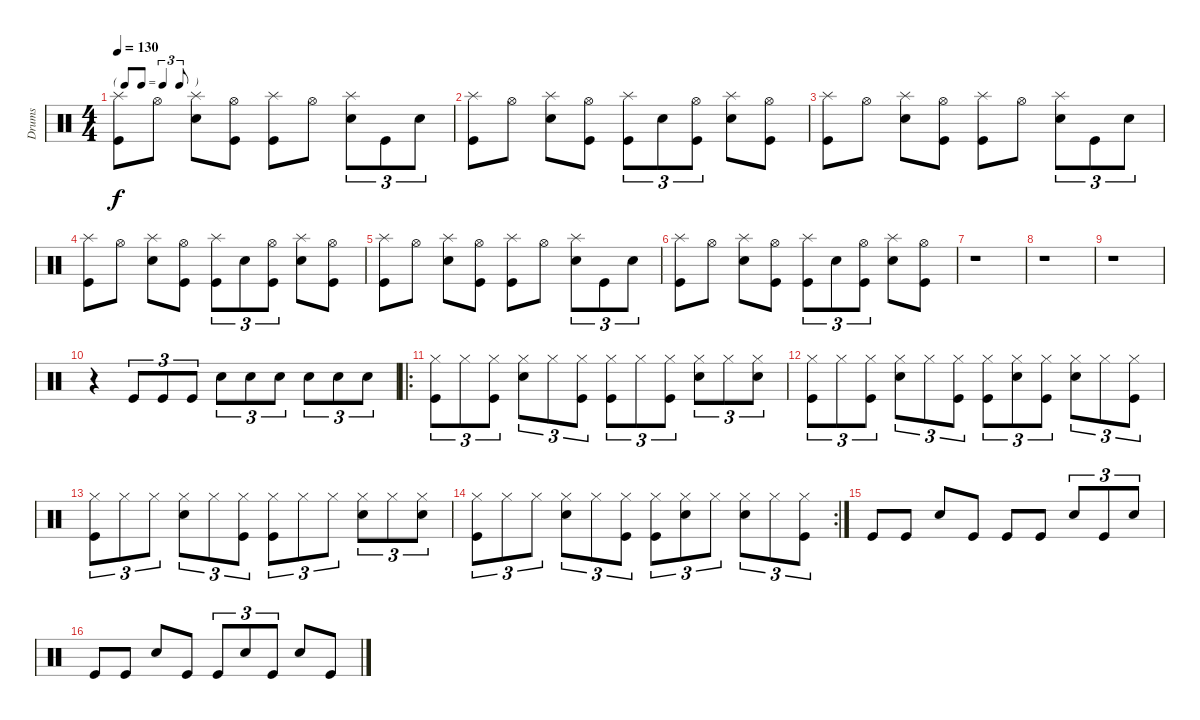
\track ("Drums" "Drums") {instrument percussion}
\staff {score}
\articulation defaults
\ts (4 4)
\tf triplet8th
\tempo 130
\clef neutral
\ks c
("Splash (hit)" "Kick (hit)").8{dy f} "Hi-Hat (open)".8 ("Splash (hit)" "Electric Snare (hit)").8 ("Hi-Hat (open)" "Kick (hit)").8 ("Splash (hit)" "Kick (hit)").8 "Hi-Hat (open)".8 ("Splash (hit)" "Electric Snare (hit)").8{tu (3 2)} "Kick (hit)".8{tu (3 2)} "Electric Snare (hit)".8{tu (3 2)} |
("Splash (hit)" "Kick (hit)").8 "Hi-Hat (open)".8 ("Splash (hit)" "Electric Snare (hit)").8 ("Hi-Hat (open)" "Kick (hit)").8 ("Splash (hit)" "Kick (hit)").8{tu (3 2)} "Electric Snare (hit)".8{tu (3 2)} ("Hi-Hat (open)" "Kick (hit)").8{tu (3 2)} ("Splash (hit)" "Electric Snare (hit)").8 ("Hi-Hat (open)" "Kick (hit)").8 |
("Splash (hit)" "Kick (hit)").8 "Hi-Hat (open)".8 ("Splash (hit)" "Electric Snare (hit)").8 ("Hi-Hat (open)" "Kick (hit)").8 ("Splash (hit)" "Kick (hit)").8 "Hi-Hat (open)".8 ("Splash (hit)" "Electric Snare (hit)").8{tu (3 2)} "Kick (hit)".8{tu (3 2)} "Electric Snare (hit)".8{tu (3 2)} |
("Splash (hit)" "Kick (hit)").8 "Hi-Hat (open)".8 ("Splash (hit)" "Electric Snare (hit)").8 ("Hi-Hat (open)" "Kick (hit)").8 ("Splash (hit)" "Kick (hit)").8{tu (3 2)} "Electric Snare (hit)".8{tu (3 2)} ("Hi-Hat (open)" "Kick (hit)").8{tu (3 2)} ("Splash (hit)" "Electric Snare (hit)").8 ("Hi-Hat (open)" "Kick (hit)").8 |
("Splash (hit)" "Kick (hit)").8 "Hi-Hat (open)".8 ("Splash (hit)" "Electric Snare (hit)").8 ("Hi-Hat (open)" "Kick (hit)").8 ("Splash (hit)" "Kick (hit)").8 "Hi-Hat (open)".8 ("Splash (hit)" "Electric Snare (hit)").8{tu (3 2)} "Kick (hit)".8{tu (3 2)} "Electric Snare (hit)".8{tu (3 2)} |
("Splash (hit)" "Kick (hit)").8 "Hi-Hat (open)".8 ("Splash (hit)" "Electric Snare (hit)").8 ("Hi-Hat (open)" "Kick (hit)").8 ("Splash (hit)" "Kick (hit)").8{tu (3 2)} "Electric Snare (hit)".8{tu (3 2)} ("Hi-Hat (open)" "Kick (hit)").8{tu (3 2)} ("Splash (hit)" "Electric Snare (hit)").8 ("Hi-Hat (open)" "Kick (hit)").8 |
r.1 |
r.1 |
r.1 |
r.4 "Kick (hit)".8{tu (3 2)} "Kick (hit)".8{tu (3 2)} "Kick (hit)".8{tu (3 2)} "Electric Snare (hit)".8{tu (3 2)} "Electric Snare (hit)".8{tu (3 2)} "Electric Snare (hit)".8{tu (3 2)} "Electric Snare (hit)".8{tu (3 2)} "Electric Snare (hit)".8{tu (3 2)} "Electric Snare (hit)".8{tu (3 2)} |
\ro
("Hi-Hat (closed)" "Kick (hit)").8{tu (3 2)} "Hi-Hat (closed)".8{tu (3 2)} ("Hi-Hat (closed)" "Kick (hit)").8{tu (3 2)} ("Snare (hit) 2" "Hi-Hat (closed)").8{tu (3 2)} "Hi-Hat (closed)".8{tu (3 2)} ("Hi-Hat (closed)" "Kick (hit)").8{tu (3 2)} ("Hi-Hat (closed)" "Kick (hit)").8{tu (3 2)} "Hi-Hat (closed)".8{tu (3 2)} ("Hi-Hat (closed)" "Kick (hit)").8{tu (3 2)} ("Snare (hit) 2" "Hi-Hat (closed)").8{tu (3 2)} "Hi-Hat (closed)".8{tu (3 2)} ("Snare (hit) 2" "Hi-Hat (closed)").8{tu (3 2)} |
("Hi-Hat (closed)" "Kick (hit)").8{tu (3 2)} "Hi-Hat (closed)".8{tu (3 2)} ("Hi-Hat (closed)" "Kick (hit)").8{tu (3 2)} ("Snare (hit) 2" "Hi-Hat (closed)").8{tu (3 2)} "Hi-Hat (closed)".8{tu (3 2)} ("Hi-Hat (closed)" "Kick (hit)").8{tu (3 2)} ("Hi-Hat (closed)" "Kick (hit)").8{tu (3 2)} ("Snare (hit) 2" "Hi-Hat (closed)").8{tu (3 2)} ("Hi-Hat (closed)" "Kick (hit)").8{tu (3 2)} ("Snare (hit) 2" "Hi-Hat (closed)").8{tu (3 2)} "Hi-Hat (closed)".8{tu (3 2)} ("Hi-Hat (closed)" "Kick (hit)").8{tu (3 2)} |
("Hi-Hat (closed)" "Kick (hit)").8{tu (3 2)} "Hi-Hat (closed)".8{tu (3 2)} "Hi-Hat (closed)".8{tu (3 2)} ("Snare (hit) 2" "Hi-Hat (closed)").8{tu (3 2)} "Hi-Hat (closed)".8{tu (3 2)} ("Hi-Hat (closed)" "Kick (hit)").8{tu (3 2)} ("Hi-Hat (closed)" "Kick (hit)").8{tu (3 2)} "Hi-Hat (closed)".8{tu (3 2)} "Hi-Hat (closed)".8{tu (3 2)} ("Snare (hit) 2" "Hi-Hat (closed)").8{tu (3 2)} "Hi-Hat (closed)".8{tu (3 2)} ("Snare (hit) 2" "Hi-Hat (closed)").8{tu (3 2)} |
\rc 2
("Hi-Hat (closed)" "Kick (hit)").8{tu (3 2)} "Hi-Hat (closed)".8{tu (3 2)} "Hi-Hat (closed)".8{tu (3 2)} ("Snare (hit) 2" "Hi-Hat (closed)").8{tu (3 2)} "Hi-Hat (closed)".8{tu (3 2)} ("Hi-Hat (closed)" "Kick (hit)").8{tu (3 2)} ("Hi-Hat (closed)" "Kick (hit)").8{tu (3 2)} ("Snare (hit) 2" "Hi-Hat (closed)").8{tu (3 2)} "Hi-Hat (closed)".8{tu (3 2)} ("Snare (hit) 2" "Hi-Hat (closed)").8{tu (3 2)} "Hi-Hat (closed)".8{tu (3 2)} ("Hi-Hat (closed)" "Kick (hit)").8{tu (3 2)} |
"Kick (hit)".8 "Kick (hit)".8 "Snare (hit) 2".8 "Kick (hit)".8 "Kick (hit)".8 "Kick (hit)".8 "Snare (hit) 2".8{tu (3 2)} "Kick (hit)".8{tu (3 2)} "Snare (hit) 2".8{tu (3 2)} |
"Kick (hit)".8 "Kick (hit)".8 "Snare (hit) 2".8 "Kick (hit)".8 "Kick (hit)".8{tu (3 2)} "Snare (hit) 2".8{tu (3 2)} "Kick (hit)".8{tu (3 2)} "Snare (hit) 2".8 "Kick (hit)".8
